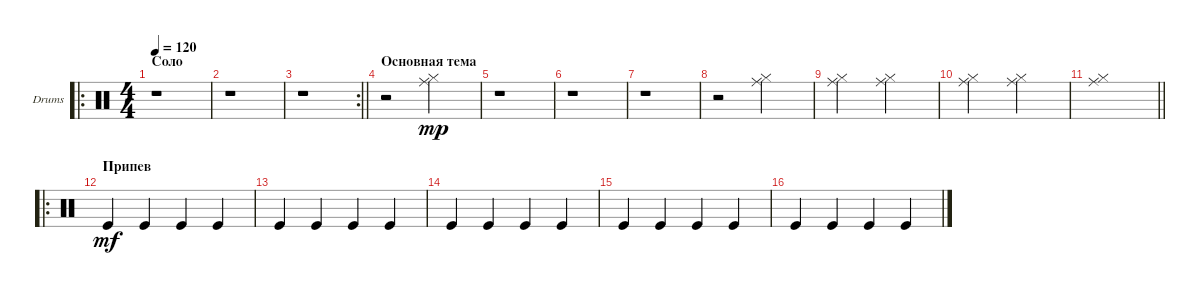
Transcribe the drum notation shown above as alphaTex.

\bracketExtendMode groupsimilarinstruments
\firstSystemTrackNameOrientation horizontal
\otherSystemsTrackNameOrientation horizontal
\track ("Drumkit" "Drums") {instrument percussion}
\staff {score}
\articulation defaults
\ro
\ts (4 4)
\section ("" "Соло")
\tempo 120
\clef neutral
\ks c
r.1{dy pp} |
r.1 |
\rc 2
\barLineRight lightlight
r.1 |
\section ("" "Основная тема")
r.2 ("Hi-Hat (closed)" "Ride (middle)").2{dy mp} |
r.1 |
r.1 |
r.1 |
r.2 ("Hi-Hat (closed)" "Ride (middle)").2 |
("Hi-Hat (closed)" "Ride (middle)").2 ("Hi-Hat (closed)" "Ride (middle)").2 |
("Hi-Hat (closed)" "Ride (middle)").2 ("Hi-Hat (closed)" "Ride (middle)").2 |
\barLineRight lightlight
("Hi-Hat (closed)" "Ride (middle)").1 |
\ro
\section ("" "Припев")
"Kick (hit)".4{dy mf} "Kick (hit)".4 "Kick (hit)".4 "Kick (hit)".4 |
"Kick (hit)".4 "Kick (hit)".4 "Kick (hit)".4 "Kick (hit)".4 |
"Kick (hit)".4 "Kick (hit)".4 "Kick (hit)".4 "Kick (hit)".4 |
"Kick (hit)".4 "Kick (hit)".4 "Kick (hit)".4 "Kick (hit)".4 |
"Kick (hit)".4 "Kick (hit)".4 "Kick (hit)".4 "Kick (hit)".4
